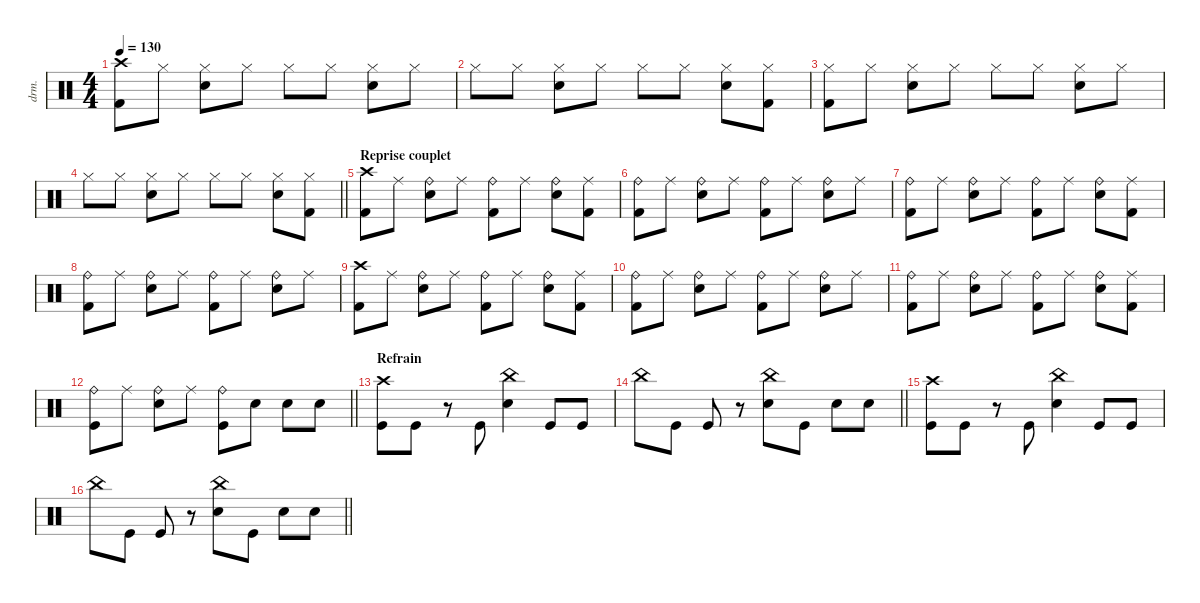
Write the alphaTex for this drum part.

\defaultSystemsLayout 4
\hideDynamics
\bracketExtendMode nobrackets
\track ("Manouche" "drm.") {solo instrument percussion}
\staff {score}
\articulation defaults
\ts (4 4)
\tempo 130
\clef neutral
\ks c
("Crash high (hit)" "Kick (hit) 2").8{dy f beam Down} "Hi-Hat (closed)".8{dy mp beam Down} ("Hi-Hat (closed)" "Snare (hit) 2").8{dy f beam Down} "Hi-Hat (closed)".8{dy mp beam Down} "Hi-Hat (closed)".8{dy f beam Down} "Hi-Hat (closed)".8{dy mp beam Down} ("Hi-Hat (closed)" "Snare (hit) 2").8{dy f beam Down} "Hi-Hat (closed)".8{dy mp beam Down} |
"Hi-Hat (closed)".8{dy f beam Down} "Hi-Hat (closed)".8{dy mp beam Down} ("Hi-Hat (closed)" "Snare (hit) 2").8{dy f beam Down} "Hi-Hat (closed)".8{dy mp beam Down} "Hi-Hat (closed)".8{dy f beam Down} "Hi-Hat (closed)".8{dy mp beam Down} ("Hi-Hat (closed)" "Snare (hit) 2").8{dy f beam Down} ("Hi-Hat (closed)" "Kick (hit) 2").8{dy mp beam Down} |
("Hi-Hat (closed)" "Kick (hit) 2").8{beam Down} "Hi-Hat (closed)".8{beam Down} ("Hi-Hat (closed)" "Snare (hit) 2").8{dy f beam Down} "Hi-Hat (closed)".8{dy mp beam Down} "Hi-Hat (closed)".8{dy f beam Down} "Hi-Hat (closed)".8{dy mp beam Down} ("Hi-Hat (closed)" "Snare (hit) 2").8{dy f beam Down} "Hi-Hat (closed)".8{dy mp beam Down} |
\barLineRight lightlight "Hi-Hat (closed)".8{dy f beam Down} "Hi-Hat (closed)".8{dy mp beam Down}
("Hi-Hat (closed)" "Snare (hit) 2").8{dy f beam Down} "Hi-Hat (closed)".8{dy mp beam Down} "Hi-Hat (closed)".8{dy f beam Down} "Hi-Hat (closed)".8{dy mp beam Down} ("Hi-Hat (closed)" "Snare (hit) 2").8{dy f beam Down} ("Hi-Hat (closed)" "Kick (hit) 2").8{dy mp beam Down} |
\section ("" "Reprise couplet")
("Crash high (hit)" "Kick (hit) 2").8{dy f beam Down} "Ride (middle)".8{dy mf beam Down} ("Ride (bell)" "Snare (hit) 2").8{dy f beam Down} "Ride (middle)".8{dy mf beam Down} ("Ride (bell)" "Kick (hit) 2").8{dy f beam Down} "Ride (middle)".8{dy mf beam Down} ("Ride (bell)" "Snare (hit) 2").8{dy f beam Down} ("Ride (middle)" "Kick (hit) 2").8{dy mf beam Down} |
("Ride (bell)" "Kick (hit) 2").8{dy f beam Down} "Ride (middle)".8{dy mf beam Down} ("Ride (bell)" "Snare (hit) 2").8{dy f beam Down} "Ride (middle)".8{dy mf beam Down} ("Ride (bell)" "Kick (hit) 2").8{dy f beam Down} "Ride (middle)".8{dy mf beam Down} ("Ride (bell)" "Snare (hit) 2").8{dy f beam Down} "Ride (middle)".8{dy mf beam Down} |
("Ride (bell)" "Kick (hit) 2").8{dy f beam Down} "Ride (middle)".8{dy mf beam Down} ("Ride (bell)" "Snare (hit) 2").8{dy f beam Down} "Ride (middle)".8{dy mf beam Down} ("Ride (bell)" "Kick (hit) 2").8{dy f beam Down} "Ride (middle)".8{dy mf beam Down} ("Ride (bell)" "Snare (hit) 2").8{dy f beam Down} ("Ride (middle)" "Kick (hit) 2").8{dy mf beam Down} |
("Ride (bell)" "Kick (hit) 2").8{dy f beam Down} "Ride (middle)".8{dy mf beam Down} ("Ride (bell)" "Snare (hit) 2").8{dy f beam Down} "Ride (middle)".8{dy mf beam Down} ("Ride (bell)" "Kick (hit) 2").8{dy f beam Down} "Ride (middle)".8{dy mf beam Down} ("Ride (bell)" "Snare (hit) 2").8{dy f beam Down} "Ride (middle)".8{dy mf beam Down} |
("Crash high (hit)" "Kick (hit) 2").8{dy f beam Down} "Ride (middle)".8{dy mf beam Down} ("Ride (bell)" "Snare (hit) 2").8{dy f beam Down} "Ride (middle)".8{dy mf beam Down} ("Ride (bell)" "Kick (hit) 2").8{dy f beam Down} "Ride (middle)".8{dy mf beam Down} ("Ride (bell)" "Snare (hit) 2").8{dy f beam Down} ("Ride (middle)" "Kick (hit) 2").8{dy mf beam Down} |
("Ride (bell)" "Kick (hit) 2").8{dy f beam Down} "Ride (middle)".8{dy mf beam Down} ("Ride (bell)" "Snare (hit) 2").8{dy f beam Down} "Ride (middle)".8{dy mf beam Down} ("Ride (bell)" "Kick (hit) 2").8{dy f beam Down} "Ride (middle)".8{dy mf beam Down} ("Ride (bell)" "Snare (hit) 2").8{dy f beam Down} "Ride (middle)".8{dy mf beam Down} |
("Ride (bell)" "Kick (hit) 2").8{dy f beam Down} "Ride (middle)".8{dy mf beam Down} ("Ride (bell)" "Snare (hit) 2").8{dy f beam Down} "Ride (middle)".8{dy mf beam Down} ("Ride (bell)" "Kick (hit) 2").8{dy f beam Down} "Ride (middle)".8{dy mf beam Down} ("Ride (bell)" "Snare (hit) 2").8{dy f beam Down} ("Ride (middle)" "Kick (hit) 2").8{dy mf beam Down} |
\barLineRight lightlight
("Ride (bell)" "Kick (hit)").8{dy f beam Down} "Ride (middle)".8{dy mf beam Down} ("Ride (bell)" "Snare (hit) 2").8{dy f beam Down} "Ride (middle)".8{dy mf beam Down} ("Ride (bell)" "Kick (hit)").8{dy f beam Down} "Snare (hit) 2".8{beam Down} "Snare (hit) 2".8{beam Down} "Snare (hit) 2".8{beam Down} |
\section ("" "Refrain")
("Crash high (hit)" "Kick (hit)").8{beam Down} "Kick (hit)".8{beam Down} r.8{beam Down} "Kick (hit)".8{beam Up} ("China (hit)" "Snare (hit) 2").4{beam Down} "Kick (hit)".8{beam Up} "Kick (hit)".8{beam Up} |
\barLineRight lightlight "China (hit)".8{beam Down} "Kick (hit)".8{beam Down} "Kick (hit)".8{beam Up}
r.8{beam Down} ("China (hit)" "Snare (hit) 2").8{beam Down} "Kick (hit)".8{beam Down} "Snare (hit) 2".8{beam Down} "Snare (hit) 2".8{beam Down} |
("Crash high (hit)" "Kick (hit)").8{beam Down} "Kick (hit)".8{beam Down} r.8{beam Down} "Kick (hit)".8{beam Up} ("China (hit)" "Snare (hit) 2").4{beam Down} "Kick (hit)".8{beam Up} "Kick (hit)".8{beam Up} |
\barLineRight lightlight "China (hit)".8{beam Down} "Kick (hit)".8{beam Down} "Kick (hit)".8{beam Up}
r.8{beam Down} ("China (hit)" "Snare (hit) 2").8{beam Down} "Kick (hit)".8{beam Down} "Snare (hit) 2".8{beam Down} "Snare (hit) 2".8{beam Down}
